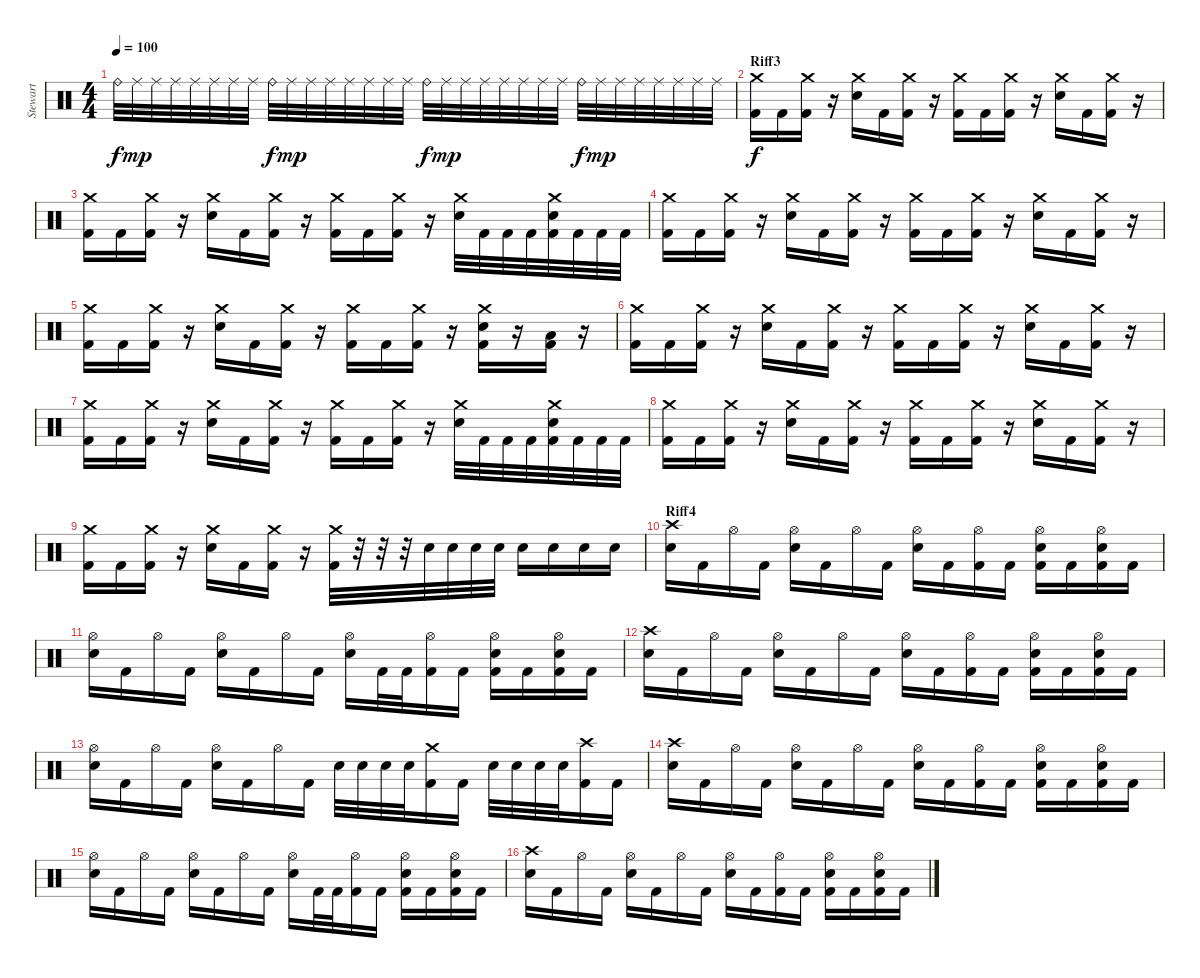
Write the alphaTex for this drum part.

\track ("Stewart" "Stewart") {instrument percussion}
\staff {score}
\articulation defaults
\ts (4 4)
\tempo 100
\clef neutral
\ks c "Ride (bell)".32{dy f volume 16} "Ride (middle)".32{dy mp} "Ride (middle)".32 "Ride (middle)".32 "Ride (middle)".32 "Ride (middle)".32 "Ride (middle)".32 "Ride (middle)".32 "Ride (bell)".32{dy f} "Ride (middle)".32{dy mp} "Ride (middle)".32 "Ride (middle)".32 "Ride (middle)".32 "Ride (middle)".32 "Ride (middle)".32 "Ride (middle)".32 "Ride (bell)".32{dy f} "Ride (middle)".32{dy mp} "Ride (middle)".32 "Ride (middle)".32 "Ride (middle)".32 "Ride (middle)".32 "Ride (middle)".32 "Ride (middle)".32 "Ride (bell)".32{dy f} "Ride (middle)".32{dy mp} "Ride (middle)".32 "Ride (middle)".32 "Ride (middle)".32 "Ride (middle)".32 "Ride (middle)".32 "Ride (middle)".32
|
\section ("" "Riff3")
("Crash medium (hit)" "Kick (hit) 2").16{dy f} "Kick (hit) 2".16 ("Crash medium (hit)" "Kick (hit) 2").16 r.16 ("Crash medium (hit)" "Snare (hit) 2").16 "Kick (hit) 2".16 ("Crash medium (hit)" "Kick (hit) 2").16 r.16 ("Crash medium (hit)" "Kick (hit) 2").16 "Kick (hit) 2".16 ("Crash medium (hit)" "Kick (hit) 2").16 r.16 ("Crash medium (hit)" "Snare (hit) 2").16 "Kick (hit) 2".16 ("Crash medium (hit)" "Kick (hit) 2").16 r.16 |
("Crash medium (hit)" "Kick (hit) 2").16 "Kick (hit) 2".16 ("Crash medium (hit)" "Kick (hit) 2").16 r.16 ("Crash medium (hit)" "Snare (hit) 2").16 "Kick (hit) 2".16 ("Crash medium (hit)" "Kick (hit) 2").16 r.16 ("Crash medium (hit)" "Kick (hit) 2").16 "Kick (hit) 2".16 ("Crash medium (hit)" "Kick (hit) 2").16 r.16 ("Crash medium (hit)" "Snare (hit) 2").32 "Kick (hit) 2".32 "Kick (hit) 2".32 "Kick (hit) 2".32 ("Crash medium (hit)" "Snare (hit) 2" "Kick (hit) 2").32 "Kick (hit) 2".32 "Kick (hit) 2".32 "Kick (hit) 2".32 |
("Crash medium (hit)" "Kick (hit) 2").16 "Kick (hit) 2".16 ("Crash medium (hit)" "Kick (hit) 2").16 r.16 ("Crash medium (hit)" "Snare (hit) 2").16 "Kick (hit) 2".16 ("Crash medium (hit)" "Kick (hit) 2").16 r.16 ("Crash medium (hit)" "Kick (hit) 2").16 "Kick (hit) 2".16 ("Crash medium (hit)" "Kick (hit) 2").16 r.16 ("Crash medium (hit)" "Snare (hit) 2").16 "Kick (hit) 2".16 ("Crash medium (hit)" "Kick (hit) 2").16 r.16 |
("Crash medium (hit)" "Kick (hit) 2").16 "Kick (hit) 2".16 ("Crash medium (hit)" "Kick (hit) 2").16 r.16 ("Crash medium (hit)" "Snare (hit) 2").16 "Kick (hit) 2".16 ("Crash medium (hit)" "Kick (hit) 2").16 r.16 ("Crash medium (hit)" "Kick (hit) 2").16 "Kick (hit) 2".16 ("Crash medium (hit)" "Kick (hit) 2").16 r.16 ("Crash medium (hit)" "Snare (hit) 2" "Kick (hit) 2").16 r.16 ("Low Floor Tom (hit)" "Kick (hit) 2").16 r.16 |
("Crash medium (hit)" "Kick (hit) 2").16 "Kick (hit) 2".16 ("Crash medium (hit)" "Kick (hit) 2").16 r.16 ("Crash medium (hit)" "Snare (hit) 2").16 "Kick (hit) 2".16 ("Crash medium (hit)" "Kick (hit) 2").16 r.16 ("Crash medium (hit)" "Kick (hit) 2").16 "Kick (hit) 2".16 ("Crash medium (hit)" "Kick (hit) 2").16 r.16 ("Crash medium (hit)" "Snare (hit) 2").16 "Kick (hit) 2".16 ("Crash medium (hit)" "Kick (hit) 2").16 r.16 |
("Crash medium (hit)" "Kick (hit) 2").16 "Kick (hit) 2".16 ("Crash medium (hit)" "Kick (hit) 2").16 r.16 ("Crash medium (hit)" "Snare (hit) 2").16 "Kick (hit) 2".16 ("Crash medium (hit)" "Kick (hit) 2").16 r.16 ("Crash medium (hit)" "Kick (hit) 2").16 "Kick (hit) 2".16 ("Crash medium (hit)" "Kick (hit) 2").16 r.16 ("Crash medium (hit)" "Snare (hit) 2").32 "Kick (hit) 2".32 "Kick (hit) 2".32 "Kick (hit) 2".32 ("Crash medium (hit)" "Snare (hit) 2" "Kick (hit) 2").32 "Kick (hit) 2".32 "Kick (hit) 2".32 "Kick (hit) 2".32 |
("Crash medium (hit)" "Kick (hit) 2").16 "Kick (hit) 2".16 ("Crash medium (hit)" "Kick (hit) 2").16 r.16 ("Crash medium (hit)" "Snare (hit) 2").16 "Kick (hit) 2".16 ("Crash medium (hit)" "Kick (hit) 2").16 r.16 ("Crash medium (hit)" "Kick (hit) 2").16 "Kick (hit) 2".16 ("Crash medium (hit)" "Kick (hit) 2").16 r.16 ("Crash medium (hit)" "Snare (hit) 2").16 "Kick (hit) 2".16 ("Crash medium (hit)" "Kick (hit) 2").16 r.16 |
("Crash medium (hit)" "Kick (hit) 2").16 "Kick (hit) 2".16 ("Crash medium (hit)" "Kick (hit) 2").16 r.16 ("Crash medium (hit)" "Snare (hit) 2").16 "Kick (hit) 2".16 ("Crash medium (hit)" "Kick (hit) 2").16 r.16 ("Crash medium (hit)" "Kick (hit) 2").32 r.32 r.32 r.32 "Snare (hit) 2".32 "Snare (hit) 2".32 "Snare (hit) 2".32 "Snare (hit) 2".32 "Snare (hit) 2".16 "Snare (hit) 2".16 "Snare (hit) 2".16 "Snare (hit) 2".16 |
\section ("" "Riff4")
("Crash high (hit)" "Snare (hit) 2").16 "Kick (hit) 2".16 "Hi-Hat (open)".16 "Kick (hit) 2".16 ("Hi-Hat (open)" "Snare (hit) 2").16 "Kick (hit) 2".16 "Hi-Hat (open)".16 "Kick (hit) 2".16 ("Hi-Hat (open)" "Snare (hit) 2").16 "Kick (hit) 2".16 ("Hi-Hat (open)" "Kick (hit) 2").16 "Kick (hit) 2".16 ("Hi-Hat (open)" "Snare (hit) 2" "Kick (hit) 2").16 "Kick (hit) 2".16 ("Hi-Hat (open)" "Snare (hit) 2" "Kick (hit) 2").16 "Kick (hit) 2".16 |
("Hi-Hat (open)" "Snare (hit) 2").16 "Kick (hit) 2".16 "Hi-Hat (open)".16 "Kick (hit) 2".16 ("Hi-Hat (open)" "Snare (hit) 2").16 "Kick (hit) 2".16 "Hi-Hat (open)".16 "Kick (hit) 2".16 ("Hi-Hat (open)" "Snare (hit) 2").16 "Kick (hit) 2".32 "Kick (hit) 2".32 ("Hi-Hat (open)" "Kick (hit) 2").16 "Kick (hit) 2".16 ("Hi-Hat (open)" "Snare (hit) 2" "Kick (hit) 2").16 "Kick (hit) 2".16 ("Hi-Hat (open)" "Snare (hit) 2" "Kick (hit) 2").16 "Kick (hit) 2".16 |
("Crash high (hit)" "Snare (hit) 2").16 "Kick (hit) 2".16 "Hi-Hat (open)".16 "Kick (hit) 2".16 ("Hi-Hat (open)" "Snare (hit) 2").16 "Kick (hit) 2".16 "Hi-Hat (open)".16 "Kick (hit) 2".16 ("Hi-Hat (open)" "Snare (hit) 2").16 "Kick (hit) 2".16 ("Hi-Hat (open)" "Kick (hit) 2").16 "Kick (hit) 2".16 ("Hi-Hat (open)" "Snare (hit) 2" "Kick (hit) 2").16 "Kick (hit) 2".16 ("Hi-Hat (open)" "Snare (hit) 2" "Kick (hit) 2").16 "Kick (hit) 2".16 |
("Hi-Hat (open)" "Snare (hit) 2").16 "Kick (hit) 2".16 "Hi-Hat (open)".16 "Kick (hit) 2".16 ("Hi-Hat (open)" "Snare (hit) 2").16 "Kick (hit) 2".16 "Hi-Hat (open)".16 "Kick (hit) 2".16 "Snare (hit) 2".32 "Snare (hit) 2".32 "Snare (hit) 2".32 "Snare (hit) 2".32 ("Crash medium (hit)" "Kick (hit) 2").16 "Kick (hit) 2".16 "Snare (hit) 2".32 "Snare (hit) 2".32 "Snare (hit) 2".32 "Snare (hit) 2".32 ("Crash high (hit)" "Kick (hit) 2").16 "Kick (hit) 2".16 |
("Crash high (hit)" "Snare (hit) 2").16 "Kick (hit) 2".16 "Hi-Hat (open)".16 "Kick (hit) 2".16 ("Hi-Hat (open)" "Snare (hit) 2").16 "Kick (hit) 2".16 "Hi-Hat (open)".16 "Kick (hit) 2".16 ("Hi-Hat (open)" "Snare (hit) 2").16 "Kick (hit) 2".16 ("Hi-Hat (open)" "Kick (hit) 2").16 "Kick (hit) 2".16 ("Hi-Hat (open)" "Snare (hit) 2" "Kick (hit) 2").16 "Kick (hit) 2".16 ("Hi-Hat (open)" "Snare (hit) 2" "Kick (hit) 2").16 "Kick (hit) 2".16 |
("Hi-Hat (open)" "Snare (hit) 2").16 "Kick (hit) 2".16 "Hi-Hat (open)".16 "Kick (hit) 2".16 ("Hi-Hat (open)" "Snare (hit) 2").16 "Kick (hit) 2".16 "Hi-Hat (open)".16 "Kick (hit) 2".16 ("Hi-Hat (open)" "Snare (hit) 2").16 "Kick (hit) 2".32 "Kick (hit) 2".32 ("Hi-Hat (open)" "Kick (hit) 2").16 "Kick (hit) 2".16 ("Hi-Hat (open)" "Snare (hit) 2" "Kick (hit) 2").16 "Kick (hit) 2".16 ("Hi-Hat (open)" "Snare (hit) 2" "Kick (hit) 2").16 "Kick (hit) 2".16 |
("Crash high (hit)" "Snare (hit) 2").16 "Kick (hit) 2".16 "Hi-Hat (open)".16 "Kick (hit) 2".16 ("Hi-Hat (open)" "Snare (hit) 2").16 "Kick (hit) 2".16 "Hi-Hat (open)".16 "Kick (hit) 2".16 ("Hi-Hat (open)" "Snare (hit) 2").16 "Kick (hit) 2".16 ("Hi-Hat (open)" "Kick (hit) 2").16 "Kick (hit) 2".16 ("Hi-Hat (open)" "Snare (hit) 2" "Kick (hit) 2").16 "Kick (hit) 2".16 ("Hi-Hat (open)" "Snare (hit) 2" "Kick (hit) 2").16 "Kick (hit) 2".16
